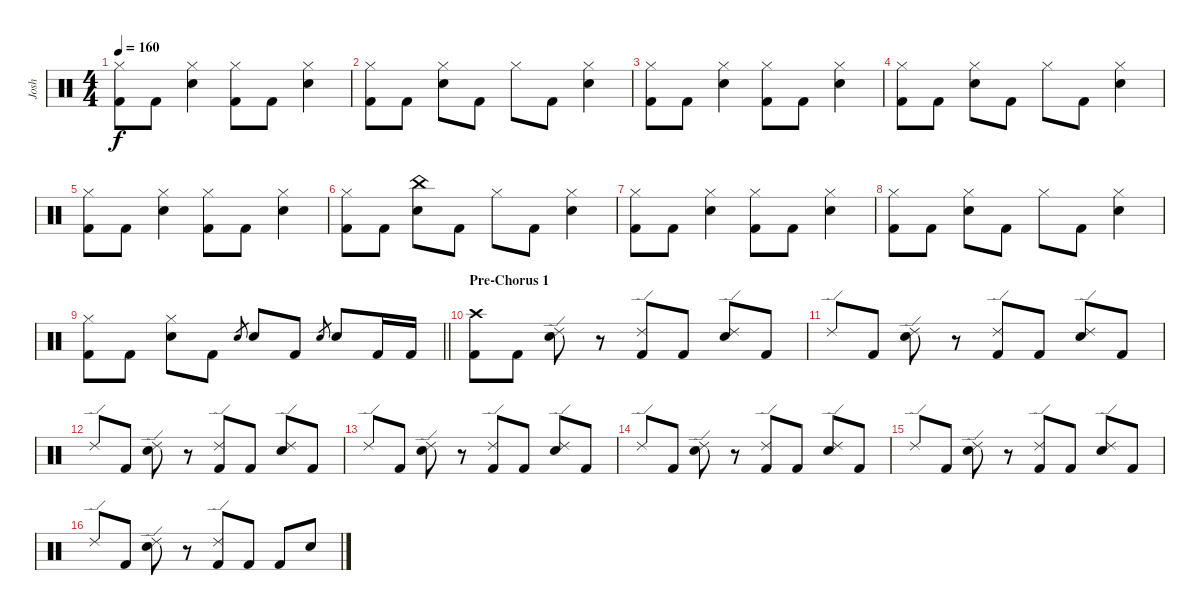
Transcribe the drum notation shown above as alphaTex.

\track ("Josh" "Josh") {instrument percussion}
\staff {score}
\articulation defaults
\ts (4 4)
\tempo 160
\clef neutral
\ks c
("Hi-Hat (closed)" "Kick (hit) 2").8{dy f} "Kick (hit) 2".8 ("Hi-Hat (closed)" "Electric Snare (hit)").4 ("Hi-Hat (closed)" "Kick (hit) 2").8 "Kick (hit) 2".8 ("Hi-Hat (closed)" "Electric Snare (hit)").4 |
("Hi-Hat (closed)" "Kick (hit) 2").8 "Kick (hit) 2".8 ("Hi-Hat (closed)" "Electric Snare (hit)").8 "Kick (hit) 2".8 "Hi-Hat (closed)".8 "Kick (hit) 2".8 ("Hi-Hat (closed)" "Electric Snare (hit)").4 |
("Hi-Hat (closed)" "Kick (hit) 2").8 "Kick (hit) 2".8 ("Hi-Hat (closed)" "Electric Snare (hit)").4 ("Hi-Hat (closed)" "Kick (hit) 2").8 "Kick (hit) 2".8 ("Hi-Hat (closed)" "Electric Snare (hit)").4 |
("Hi-Hat (closed)" "Kick (hit) 2").8 "Kick (hit) 2".8 ("Hi-Hat (closed)" "Electric Snare (hit)").8 "Kick (hit) 2".8 "Hi-Hat (closed)".8 "Kick (hit) 2".8 ("Hi-Hat (closed)" "Electric Snare (hit)").4 |
("Hi-Hat (closed)" "Kick (hit) 2").8 "Kick (hit) 2".8 ("Hi-Hat (closed)" "Electric Snare (hit)").4 ("Hi-Hat (closed)" "Kick (hit) 2").8 "Kick (hit) 2".8 ("Hi-Hat (closed)" "Electric Snare (hit)").4 |
("Hi-Hat (closed)" "Kick (hit) 2").8 "Kick (hit) 2".8 ("China (hit)" "Electric Snare (hit)").8 "Kick (hit) 2".8 "Hi-Hat (closed)".8 "Kick (hit) 2".8 ("Hi-Hat (closed)" "Electric Snare (hit)").4 |
("Hi-Hat (closed)" "Kick (hit) 2").8 "Kick (hit) 2".8 ("Hi-Hat (closed)" "Electric Snare (hit)").4 ("Hi-Hat (closed)" "Kick (hit) 2").8 "Kick (hit) 2".8 ("Hi-Hat (closed)" "Electric Snare (hit)").4 |
("Hi-Hat (closed)" "Kick (hit) 2").8 "Kick (hit) 2".8 ("Hi-Hat (closed)" "Electric Snare (hit)").8 "Kick (hit) 2".8 "Hi-Hat (closed)".8 "Kick (hit) 2".8 ("Hi-Hat (closed)" "Electric Snare (hit)").4 |
\barLineRight lightlight
("Hi-Hat (closed)" "Kick (hit) 2").8 "Kick (hit) 2".8 ("Hi-Hat (closed)" "Electric Snare (hit)").8 "Kick (hit) 2".8 "Electric Snare (hit)".8{gr} "Electric Snare (hit)".8 "Kick (hit) 2".8 "Electric Snare (hit)".8{gr} "Electric Snare (hit)".8 "Kick (hit) 2".16 "Kick (hit) 2".16 |
\section ("" "Pre-Chorus 1")
("Crash high (hit)" "Kick (hit) 2").8 "Kick (hit) 2".8 ("Ride (edge) 2" "Electric Snare (hit)").8 r.8 ("Ride (edge) 2" "Kick (hit) 2").8 "Kick (hit) 2".8 ("Ride (edge) 2" "Electric Snare (hit)").8 "Kick (hit) 2".8 |
"Ride (edge) 2".8 "Kick (hit) 2".8 ("Ride (edge) 2" "Electric Snare (hit)").8 r.8 ("Ride (edge) 2" "Kick (hit) 2").8 "Kick (hit) 2".8 ("Ride (edge) 2" "Electric Snare (hit)").8 "Kick (hit) 2".8 |
"Ride (edge) 2".8 "Kick (hit) 2".8 ("Ride (edge) 2" "Electric Snare (hit)").8 r.8 ("Ride (edge) 2" "Kick (hit) 2").8 "Kick (hit) 2".8 ("Ride (edge) 2" "Electric Snare (hit)").8 "Kick (hit) 2".8 |
"Ride (edge) 2".8 "Kick (hit) 2".8 ("Ride (edge) 2" "Electric Snare (hit)").8 r.8 ("Ride (edge) 2" "Kick (hit) 2").8 "Kick (hit) 2".8 ("Ride (edge) 2" "Electric Snare (hit)").8 "Kick (hit) 2".8 |
"Ride (edge) 2".8 "Kick (hit) 2".8 ("Ride (edge) 2" "Electric Snare (hit)").8 r.8 ("Ride (edge) 2" "Kick (hit) 2").8 "Kick (hit) 2".8 ("Ride (edge) 2" "Electric Snare (hit)").8 "Kick (hit) 2".8 |
"Ride (edge) 2".8 "Kick (hit) 2".8 ("Ride (edge) 2" "Electric Snare (hit)").8 r.8 ("Ride (edge) 2" "Kick (hit) 2").8 "Kick (hit) 2".8 ("Ride (edge) 2" "Electric Snare (hit)").8 "Kick (hit) 2".8 |
"Ride (edge) 2".8 "Kick (hit) 2".8 ("Ride (edge) 2" "Electric Snare (hit)").8 r.8 ("Ride (edge) 2" "Kick (hit) 2").8 "Kick (hit) 2".8 "Kick (hit) 2".8 "Electric Snare (hit)".8
